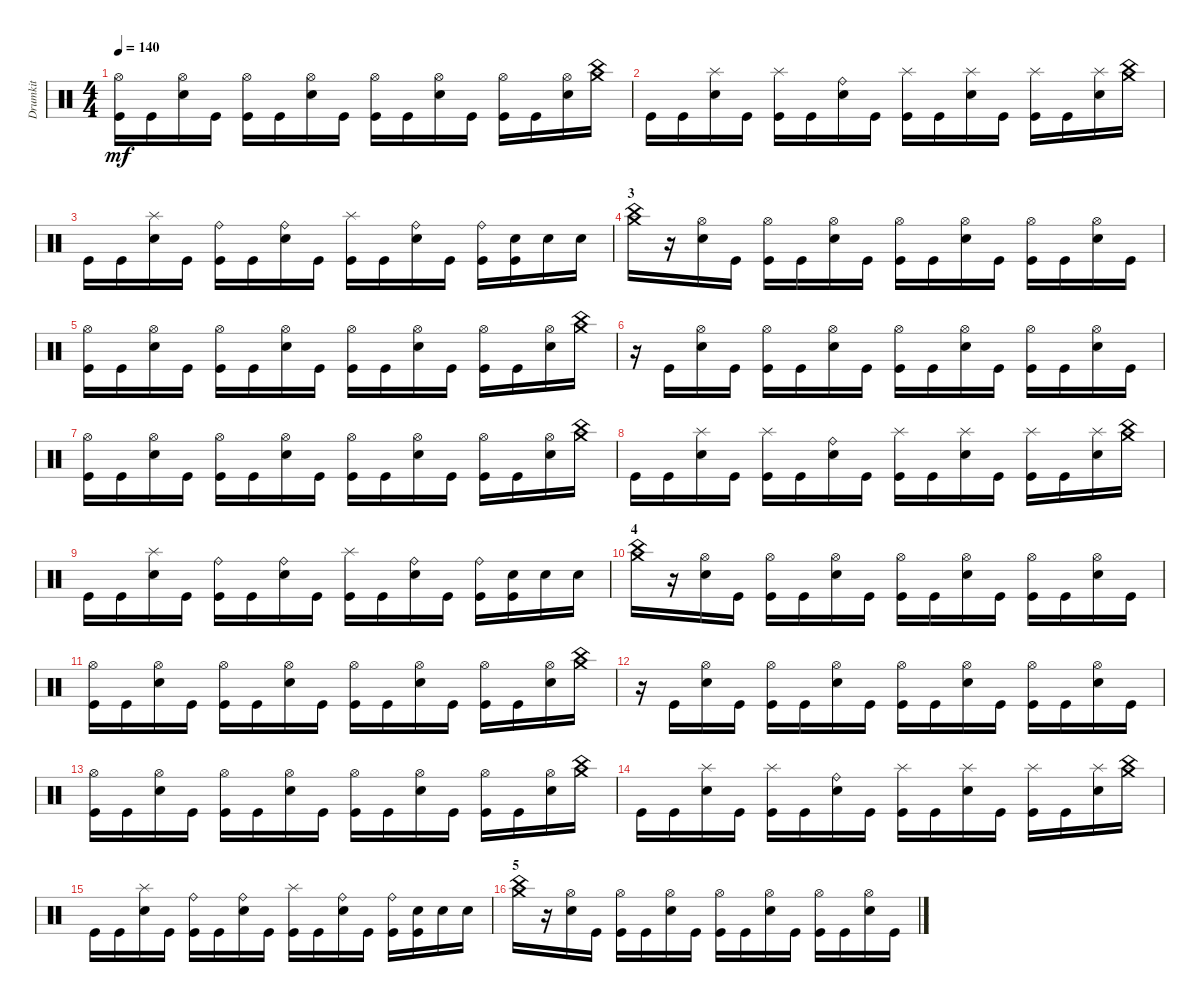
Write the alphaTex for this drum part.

\track ("Drumkit" "Drumkit") {instrument percussion}
\staff {score}
\articulation defaults
\ts (4 4)
\tempo 140
\clef neutral
\ks c
("Kick (hit)" "Hi-Hat (open)").16{dy mf} "Kick (hit)".16 ("Snare (hit) 2" "Hi-Hat (open)").16 "Kick (hit)".16 ("Kick (hit)" "Hi-Hat (open)").16 "Kick (hit)".16 ("Snare (hit) 2" "Hi-Hat (open)").16 "Kick (hit)".16 ("Kick (hit)" "Hi-Hat (open)").16 "Kick (hit)".16 ("Snare (hit) 2" "Hi-Hat (open)").16 "Kick (hit)".16 ("Kick (hit)" "Hi-Hat (open)").16 "Kick (hit)".16 ("Snare (hit) 2" "Hi-Hat (open)").16 ("China (hit)" "Crash medium (hit)").16 |
"Kick (hit)".16 "Kick (hit)".16 ("Snare (hit) 2" "Splash (hit)").16 "Kick (hit)".16 ("Kick (hit)" "Splash (hit)").16 "Kick (hit)".16 ("Snare (hit) 2" "Ride (bell)").16 "Kick (hit)".16 ("Kick (hit)" "Splash (hit)").16 "Kick (hit)".16 ("Snare (hit) 2" "Splash (hit)").16 "Kick (hit)".16 ("Kick (hit)" "Splash (hit)").16 "Kick (hit)".16 ("Snare (hit) 2" "Splash (hit)").16 ("China (hit)" "Crash medium (hit)").16 |
"Kick (hit)".16 "Kick (hit)".16 ("Snare (hit) 2" "Splash (hit)").16 "Kick (hit)".16 ("Kick (hit)" "Ride (bell)").16 "Kick (hit)".16 ("Snare (hit) 2" "Ride (bell)").16 "Kick (hit)".16 ("Kick (hit)" "Splash (hit)").16 "Kick (hit)".16 ("Snare (hit) 2" "Ride (bell)").16 "Kick (hit)".16 ("Kick (hit)" "Ride (bell)").16 ("Kick (hit)" "Snare (hit) 2").16 "Snare (hit) 2".16 "Snare (hit) 2".16 |
\section ("" "3")
("China (hit)" "Crash medium (hit)").16 r.16 ("Snare (hit) 2" "Hi-Hat (open)").16 "Kick (hit)".16 ("Kick (hit)" "Hi-Hat (open)").16 "Kick (hit)".16 ("Snare (hit) 2" "Hi-Hat (open)").16 "Kick (hit)".16 ("Kick (hit)" "Hi-Hat (open)").16 "Kick (hit)".16 ("Snare (hit) 2" "Hi-Hat (open)").16 "Kick (hit)".16 ("Kick (hit)" "Hi-Hat (open)").16 "Kick (hit)".16 ("Snare (hit) 2" "Hi-Hat (open)").16 "Kick (hit)".16 |
("Kick (hit)" "Hi-Hat (open)").16 "Kick (hit)".16 ("Snare (hit) 2" "Hi-Hat (open)").16 "Kick (hit)".16 ("Kick (hit)" "Hi-Hat (open)").16 "Kick (hit)".16 ("Snare (hit) 2" "Hi-Hat (open)").16 "Kick (hit)".16 ("Kick (hit)" "Hi-Hat (open)").16 "Kick (hit)".16 ("Snare (hit) 2" "Hi-Hat (open)").16 "Kick (hit)".16 ("Kick (hit)" "Hi-Hat (open)").16 "Kick (hit)".16 ("Snare (hit) 2" "Hi-Hat (open)").16 ("China (hit)" "Crash medium (hit)").16 |
r.16 "Kick (hit)".16 ("Snare (hit) 2" "Hi-Hat (open)").16 "Kick (hit)".16 ("Kick (hit)" "Hi-Hat (open)").16 "Kick (hit)".16 ("Snare (hit) 2" "Hi-Hat (open)").16 "Kick (hit)".16 ("Kick (hit)" "Hi-Hat (open)").16 "Kick (hit)".16 ("Snare (hit) 2" "Hi-Hat (open)").16 "Kick (hit)".16 ("Kick (hit)" "Hi-Hat (open)").16 "Kick (hit)".16 ("Snare (hit) 2" "Hi-Hat (open)").16 "Kick (hit)".16 |
("Kick (hit)" "Hi-Hat (open)").16 "Kick (hit)".16 ("Snare (hit) 2" "Hi-Hat (open)").16 "Kick (hit)".16 ("Kick (hit)" "Hi-Hat (open)").16 "Kick (hit)".16 ("Snare (hit) 2" "Hi-Hat (open)").16 "Kick (hit)".16 ("Kick (hit)" "Hi-Hat (open)").16 "Kick (hit)".16 ("Snare (hit) 2" "Hi-Hat (open)").16 "Kick (hit)".16 ("Kick (hit)" "Hi-Hat (open)").16 "Kick (hit)".16 ("Snare (hit) 2" "Hi-Hat (open)").16 ("China (hit)" "Crash medium (hit)").16 |
"Kick (hit)".16 "Kick (hit)".16 ("Snare (hit) 2" "Splash (hit)").16 "Kick (hit)".16 ("Kick (hit)" "Splash (hit)").16 "Kick (hit)".16 ("Snare (hit) 2" "Ride (bell)").16 "Kick (hit)".16 ("Kick (hit)" "Splash (hit)").16 "Kick (hit)".16 ("Snare (hit) 2" "Splash (hit)").16 "Kick (hit)".16 ("Kick (hit)" "Splash (hit)").16 "Kick (hit)".16 ("Snare (hit) 2" "Splash (hit)").16 ("China (hit)" "Crash medium (hit)").16 |
"Kick (hit)".16 "Kick (hit)".16 ("Snare (hit) 2" "Splash (hit)").16 "Kick (hit)".16 ("Kick (hit)" "Ride (bell)").16 "Kick (hit)".16 ("Snare (hit) 2" "Ride (bell)").16 "Kick (hit)".16 ("Kick (hit)" "Splash (hit)").16 "Kick (hit)".16 ("Snare (hit) 2" "Ride (bell)").16 "Kick (hit)".16 ("Kick (hit)" "Ride (bell)").16 ("Kick (hit)" "Snare (hit) 2").16 "Snare (hit) 2".16 "Snare (hit) 2".16 |
\section ("" "4")
("China (hit)" "Crash medium (hit)").16 r.16 ("Snare (hit) 2" "Hi-Hat (open)").16 "Kick (hit)".16 ("Kick (hit)" "Hi-Hat (open)").16 "Kick (hit)".16 ("Snare (hit) 2" "Hi-Hat (open)").16 "Kick (hit)".16 ("Kick (hit)" "Hi-Hat (open)").16 "Kick (hit)".16 ("Snare (hit) 2" "Hi-Hat (open)").16 "Kick (hit)".16 ("Kick (hit)" "Hi-Hat (open)").16 "Kick (hit)".16 ("Snare (hit) 2" "Hi-Hat (open)").16 "Kick (hit)".16 |
("Kick (hit)" "Hi-Hat (open)").16 "Kick (hit)".16 ("Snare (hit) 2" "Hi-Hat (open)").16 "Kick (hit)".16 ("Kick (hit)" "Hi-Hat (open)").16 "Kick (hit)".16 ("Snare (hit) 2" "Hi-Hat (open)").16 "Kick (hit)".16 ("Kick (hit)" "Hi-Hat (open)").16 "Kick (hit)".16 ("Snare (hit) 2" "Hi-Hat (open)").16 "Kick (hit)".16 ("Kick (hit)" "Hi-Hat (open)").16 "Kick (hit)".16 ("Snare (hit) 2" "Hi-Hat (open)").16 ("China (hit)" "Crash medium (hit)").16 |
r.16 "Kick (hit)".16 ("Snare (hit) 2" "Hi-Hat (open)").16 "Kick (hit)".16 ("Kick (hit)" "Hi-Hat (open)").16 "Kick (hit)".16 ("Snare (hit) 2" "Hi-Hat (open)").16 "Kick (hit)".16 ("Kick (hit)" "Hi-Hat (open)").16 "Kick (hit)".16 ("Snare (hit) 2" "Hi-Hat (open)").16 "Kick (hit)".16 ("Kick (hit)" "Hi-Hat (open)").16 "Kick (hit)".16 ("Snare (hit) 2" "Hi-Hat (open)").16 "Kick (hit)".16 |
("Kick (hit)" "Hi-Hat (open)").16 "Kick (hit)".16 ("Snare (hit) 2" "Hi-Hat (open)").16 "Kick (hit)".16 ("Kick (hit)" "Hi-Hat (open)").16 "Kick (hit)".16 ("Snare (hit) 2" "Hi-Hat (open)").16 "Kick (hit)".16 ("Kick (hit)" "Hi-Hat (open)").16 "Kick (hit)".16 ("Snare (hit) 2" "Hi-Hat (open)").16 "Kick (hit)".16 ("Kick (hit)" "Hi-Hat (open)").16 "Kick (hit)".16 ("Snare (hit) 2" "Hi-Hat (open)").16 ("China (hit)" "Crash medium (hit)").16 |
"Kick (hit)".16 "Kick (hit)".16 ("Snare (hit) 2" "Splash (hit)").16 "Kick (hit)".16 ("Kick (hit)" "Splash (hit)").16 "Kick (hit)".16 ("Snare (hit) 2" "Ride (bell)").16 "Kick (hit)".16 ("Kick (hit)" "Splash (hit)").16 "Kick (hit)".16 ("Snare (hit) 2" "Splash (hit)").16 "Kick (hit)".16 ("Kick (hit)" "Splash (hit)").16 "Kick (hit)".16 ("Snare (hit) 2" "Splash (hit)").16 ("China (hit)" "Crash medium (hit)").16 |
"Kick (hit)".16 "Kick (hit)".16 ("Snare (hit) 2" "Splash (hit)").16 "Kick (hit)".16 ("Kick (hit)" "Ride (bell)").16 "Kick (hit)".16 ("Snare (hit) 2" "Ride (bell)").16 "Kick (hit)".16 ("Kick (hit)" "Splash (hit)").16 "Kick (hit)".16 ("Snare (hit) 2" "Ride (bell)").16 "Kick (hit)".16 ("Kick (hit)" "Ride (bell)").16 ("Kick (hit)" "Snare (hit) 2").16 "Snare (hit) 2".16 "Snare (hit) 2".16 |
\section ("" "5")
("China (hit)" "Crash medium (hit)").16 r.16 ("Snare (hit) 2" "Hi-Hat (open)").16 "Kick (hit)".16 ("Kick (hit)" "Hi-Hat (open)").16 "Kick (hit)".16 ("Snare (hit) 2" "Hi-Hat (open)").16 "Kick (hit)".16 ("Kick (hit)" "Hi-Hat (open)").16 "Kick (hit)".16 ("Snare (hit) 2" "Hi-Hat (open)").16 "Kick (hit)".16 ("Kick (hit)" "Hi-Hat (open)").16 "Kick (hit)".16 ("Snare (hit) 2" "Hi-Hat (open)").16 "Kick (hit)".16
